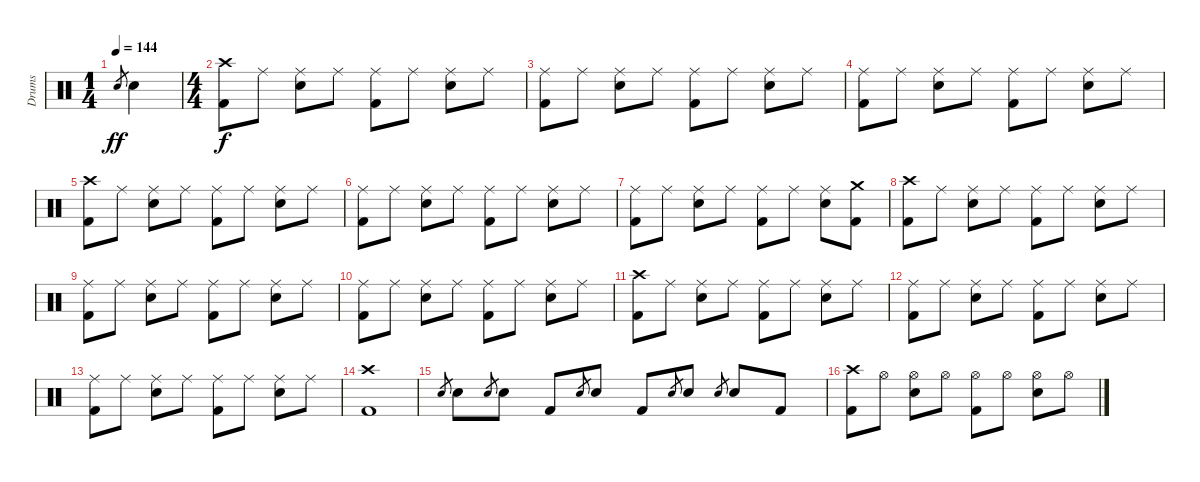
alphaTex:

\track ("Drums" "Drums") {instrument percussion}
\staff {score}
\articulation defaults
\ts (1 4)
\tempo 144
\clef neutral
\ks c "Electric Snare (hit)".8{gr dy ff} "Electric Snare (hit)".4
|
\ts (4 4)
("Crash high (hit)" "Kick (hit) 2").8{dy f} "Ride (middle)".8 ("Ride (middle)" "Electric Snare (hit)").8 "Ride (middle)".8 ("Ride (middle)" "Kick (hit) 2").8 "Ride (middle)".8 ("Ride (middle)" "Electric Snare (hit)").8 "Ride (middle)".8 |
("Ride (middle)" "Kick (hit) 2").8 "Ride (middle)".8 ("Ride (middle)" "Electric Snare (hit)").8 "Ride (middle)".8 ("Ride (middle)" "Kick (hit) 2").8 "Ride (middle)".8 ("Ride (middle)" "Electric Snare (hit)").8 "Ride (middle)".8 |
("Ride (middle)" "Kick (hit) 2").8 "Ride (middle)".8 ("Ride (middle)" "Electric Snare (hit)").8 "Ride (middle)".8 ("Ride (middle)" "Kick (hit) 2").8 "Ride (middle)".8 ("Ride (middle)" "Electric Snare (hit)").8 "Ride (middle)".8 |
("Crash high (hit)" "Kick (hit) 2").8 "Ride (middle)".8 ("Ride (middle)" "Electric Snare (hit)").8 "Ride (middle)".8 ("Ride (middle)" "Kick (hit) 2").8 "Ride (middle)".8 ("Ride (middle)" "Electric Snare (hit)").8 "Ride (middle)".8 |
("Ride (middle)" "Kick (hit) 2").8 "Ride (middle)".8 ("Ride (middle)" "Electric Snare (hit)").8 "Ride (middle)".8 ("Ride (middle)" "Kick (hit) 2").8 "Ride (middle)".8 ("Ride (middle)" "Electric Snare (hit)").8 "Ride (middle)".8 |
("Ride (middle)" "Kick (hit) 2").8 "Ride (middle)".8 ("Ride (middle)" "Electric Snare (hit)").8 "Ride (middle)".8 ("Ride (middle)" "Kick (hit) 2").8 "Ride (middle)".8 ("Ride (middle)" "Electric Snare (hit)").8 ("Crash medium (hit)" "Kick (hit) 2").8 |
("Crash high (hit)" "Kick (hit) 2").8 "Ride (middle)".8 ("Ride (middle)" "Electric Snare (hit)").8 "Ride (middle)".8 ("Ride (middle)" "Kick (hit) 2").8 "Ride (middle)".8 ("Ride (middle)" "Electric Snare (hit)").8 "Ride (middle)".8 |
("Ride (middle)" "Kick (hit) 2").8 "Ride (middle)".8 ("Ride (middle)" "Electric Snare (hit)").8 "Ride (middle)".8 ("Ride (middle)" "Kick (hit) 2").8 "Ride (middle)".8 ("Ride (middle)" "Electric Snare (hit)").8 "Ride (middle)".8 |
("Ride (middle)" "Kick (hit) 2").8 "Ride (middle)".8 ("Ride (middle)" "Electric Snare (hit)").8 "Ride (middle)".8 ("Ride (middle)" "Kick (hit) 2").8 "Ride (middle)".8 ("Ride (middle)" "Electric Snare (hit)").8 "Ride (middle)".8 |
("Crash high (hit)" "Kick (hit) 2").8 "Ride (middle)".8 ("Ride (middle)" "Electric Snare (hit)").8 "Ride (middle)".8 ("Ride (middle)" "Kick (hit) 2").8 "Ride (middle)".8 ("Ride (middle)" "Electric Snare (hit)").8 "Ride (middle)".8 |
("Ride (middle)" "Kick (hit) 2").8 "Ride (middle)".8 ("Ride (middle)" "Electric Snare (hit)").8 "Ride (middle)".8 ("Ride (middle)" "Kick (hit) 2").8 "Ride (middle)".8 ("Ride (middle)" "Electric Snare (hit)").8 "Ride (middle)".8 |
("Ride (middle)" "Kick (hit) 2").8 "Ride (middle)".8 ("Ride (middle)" "Electric Snare (hit)").8 "Ride (middle)".8 ("Ride (middle)" "Kick (hit) 2").8 "Ride (middle)".8 ("Ride (middle)" "Electric Snare (hit)").8 "Ride (middle)".8 |
("Crash high (hit)" "Kick (hit) 2").1 |
"Electric Snare (hit)".8{gr} "Electric Snare (hit)".8 "Electric Snare (hit)".8{gr} "Electric Snare (hit)".8 "Kick (hit) 2".8 "Electric Snare (hit)".8{gr} "Electric Snare (hit)".8 "Kick (hit) 2".8 "Electric Snare (hit)".8{gr} "Electric Snare (hit)".8 "Electric Snare (hit)".8{gr} "Electric Snare (hit)".8 "Kick (hit) 2".8 |
("Crash high (hit)" "Kick (hit) 2").8 "Hi-Hat (open)".8 ("Hi-Hat (open)" "Electric Snare (hit)").8 "Hi-Hat (open)".8 ("Hi-Hat (open)" "Kick (hit) 2").8 "Hi-Hat (open)".8 ("Hi-Hat (open)" "Electric Snare (hit)").8 "Hi-Hat (open)".8
